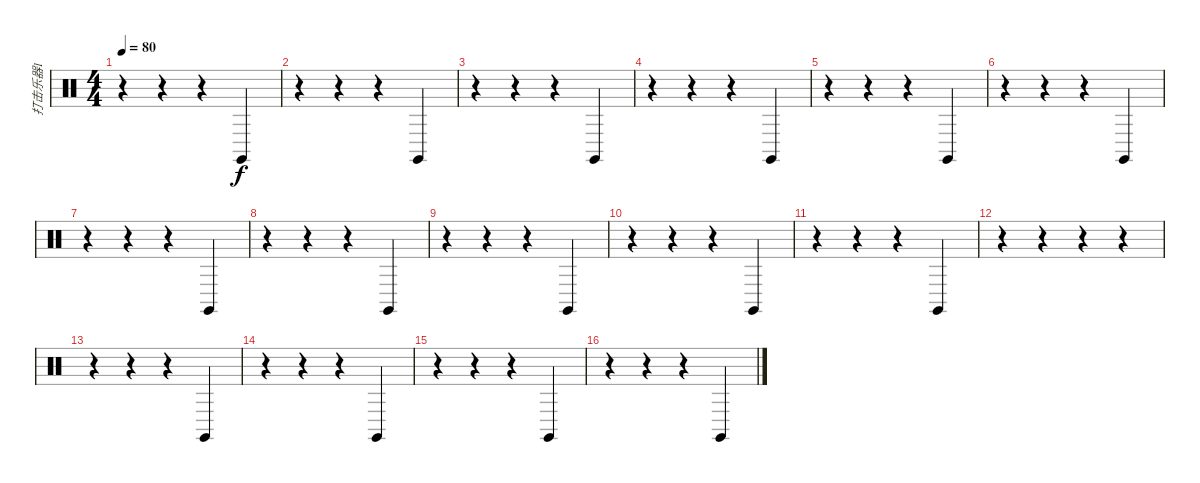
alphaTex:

\track ("打击乐器1" "打击乐器1") {instrument percussion}
\staff {score}
\articulation defaults
\ts (4 4)
\tempo 80
\clef neutral
\ks c
r.4{dy f} r.4 r.4 "Claves (hit)".4 |
r.4 r.4 r.4 "Claves (hit)".4 |
r.4 r.4 r.4 "Claves (hit)".4 |
r.4 r.4 r.4 "Claves (hit)".4 |
r.4 r.4 r.4 "Claves (hit)".4 |
r.4 r.4 r.4 "Claves (hit)".4 |
r.4 r.4 r.4 "Claves (hit)".4 |
r.4 r.4 r.4 "Claves (hit)".4 |
r.4 r.4 r.4 "Claves (hit)".4 |
r.4 r.4 r.4 "Claves (hit)".4 |
r.4 r.4 r.4 "Claves (hit)".4 |
r.4 r.4 r.4 r.4 |
r.4 r.4 r.4 "Claves (hit)".4 |
r.4 r.4 r.4 "Claves (hit)".4 |
r.4 r.4 r.4 "Claves (hit)".4 |
r.4 r.4 r.4 "Claves (hit)".4
